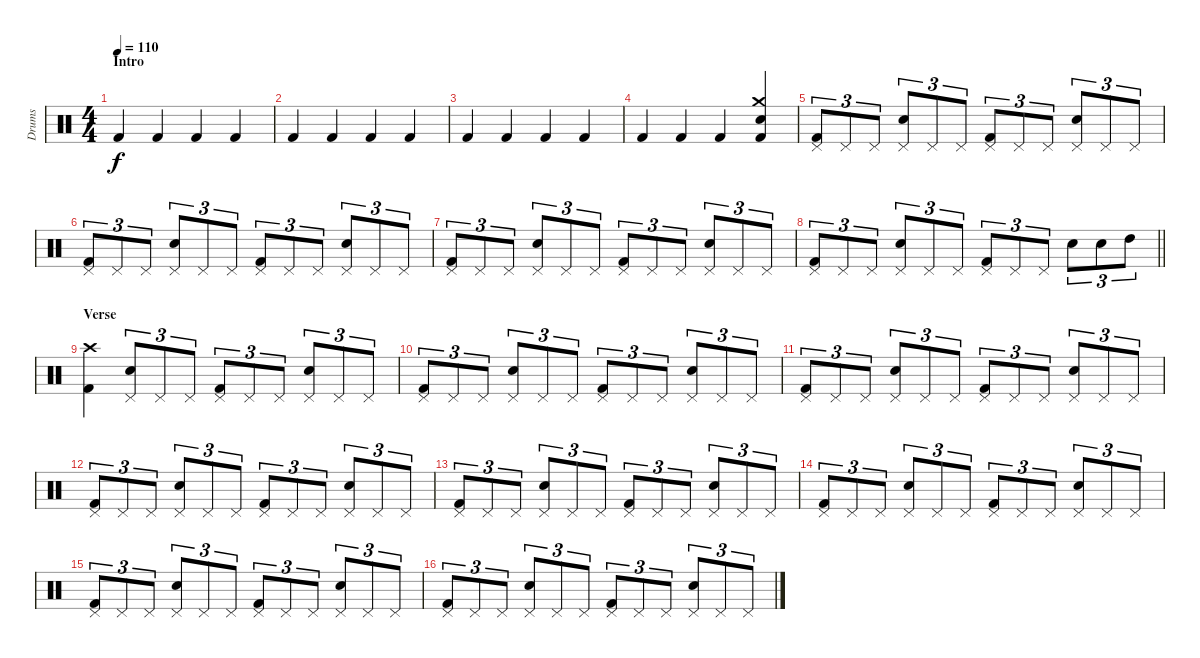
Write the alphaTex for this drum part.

\track ("Drums" "Drums") {instrument percussion}
\staff {score}
\articulation defaults
\ts (4 4)
\section ("" "Intro")
\tempo 110
\clef neutral
\ks c "Kick (hit) 2".4{dy f} "Kick (hit) 2".4 "Kick (hit) 2".4 "Kick (hit) 2".4
|
"Kick (hit) 2".4 "Kick (hit) 2".4 "Kick (hit) 2".4 "Kick (hit) 2".4 |
"Kick (hit) 2".4 "Kick (hit) 2".4 "Kick (hit) 2".4 "Kick (hit) 2".4 |
"Kick (hit) 2".4 "Kick (hit) 2".4 "Kick (hit) 2".4 ("Crash medium (hit)" "Electric Snare (hit)" "Kick (hit) 2").4 |
("Pedal Hi-Hat (hit)" "Kick (hit) 2").8{tu (3 2)} "Pedal Hi-Hat (hit)".8{tu (3 2)} "Pedal Hi-Hat (hit)".8{tu (3 2)} ("Pedal Hi-Hat (hit)" "Electric Snare (hit)").8{tu (3 2)} "Pedal Hi-Hat (hit)".8{tu (3 2)} "Pedal Hi-Hat (hit)".8{tu (3 2)} ("Pedal Hi-Hat (hit)" "Kick (hit) 2").8{tu (3 2)} "Pedal Hi-Hat (hit)".8{tu (3 2)} "Pedal Hi-Hat (hit)".8{tu (3 2)} ("Pedal Hi-Hat (hit)" "Electric Snare (hit)").8{tu (3 2)} "Pedal Hi-Hat (hit)".8{tu (3 2)} "Pedal Hi-Hat (hit)".8{tu (3 2)} |
("Pedal Hi-Hat (hit)" "Kick (hit) 2").8{tu (3 2)} "Pedal Hi-Hat (hit)".8{tu (3 2)} "Pedal Hi-Hat (hit)".8{tu (3 2)} ("Pedal Hi-Hat (hit)" "Electric Snare (hit)").8{tu (3 2)} "Pedal Hi-Hat (hit)".8{tu (3 2)} "Pedal Hi-Hat (hit)".8{tu (3 2)} ("Pedal Hi-Hat (hit)" "Kick (hit) 2").8{tu (3 2)} "Pedal Hi-Hat (hit)".8{tu (3 2)} "Pedal Hi-Hat (hit)".8{tu (3 2)} ("Pedal Hi-Hat (hit)" "Electric Snare (hit)").8{tu (3 2)} "Pedal Hi-Hat (hit)".8{tu (3 2)} "Pedal Hi-Hat (hit)".8{tu (3 2)} |
("Pedal Hi-Hat (hit)" "Kick (hit) 2").8{tu (3 2)} "Pedal Hi-Hat (hit)".8{tu (3 2)} "Pedal Hi-Hat (hit)".8{tu (3 2)} ("Pedal Hi-Hat (hit)" "Electric Snare (hit)").8{tu (3 2)} "Pedal Hi-Hat (hit)".8{tu (3 2)} "Pedal Hi-Hat (hit)".8{tu (3 2)} ("Pedal Hi-Hat (hit)" "Kick (hit) 2").8{tu (3 2)} "Pedal Hi-Hat (hit)".8{tu (3 2)} "Pedal Hi-Hat (hit)".8{tu (3 2)} ("Pedal Hi-Hat (hit)" "Electric Snare (hit)").8{tu (3 2)} "Pedal Hi-Hat (hit)".8{tu (3 2)} "Pedal Hi-Hat (hit)".8{tu (3 2)} |
\barLineRight lightlight
("Pedal Hi-Hat (hit)" "Kick (hit) 2").8{tu (3 2)} "Pedal Hi-Hat (hit)".8{tu (3 2)} "Pedal Hi-Hat (hit)".8{tu (3 2)} ("Pedal Hi-Hat (hit)" "Electric Snare (hit)").8{tu (3 2)} "Pedal Hi-Hat (hit)".8{tu (3 2)} "Pedal Hi-Hat (hit)".8{tu (3 2)} ("Pedal Hi-Hat (hit)" "Kick (hit) 2").8{tu (3 2)} "Pedal Hi-Hat (hit)".8{tu (3 2)} "Pedal Hi-Hat (hit)".8{tu (3 2)} "Electric Snare (hit)".8{tu (3 2)} "Electric Snare (hit)".8{tu (3 2)} "High Tom (hit)".8{tu (3 2)} |
\section ("" "Verse")
("Crash high (hit)" "Kick (hit) 2").4 ("Pedal Hi-Hat (hit)" "Electric Snare (hit)").8{tu (3 2)} "Pedal Hi-Hat (hit)".8{tu (3 2)} "Pedal Hi-Hat (hit)".8{tu (3 2)} ("Pedal Hi-Hat (hit)" "Kick (hit) 2").8{tu (3 2)} "Pedal Hi-Hat (hit)".8{tu (3 2)} "Pedal Hi-Hat (hit)".8{tu (3 2)} ("Pedal Hi-Hat (hit)" "Electric Snare (hit)").8{tu (3 2)} "Pedal Hi-Hat (hit)".8{tu (3 2)} "Pedal Hi-Hat (hit)".8{tu (3 2)} |
("Pedal Hi-Hat (hit)" "Kick (hit) 2").8{tu (3 2)} "Pedal Hi-Hat (hit)".8{tu (3 2)} "Pedal Hi-Hat (hit)".8{tu (3 2)} ("Pedal Hi-Hat (hit)" "Electric Snare (hit)").8{tu (3 2)} "Pedal Hi-Hat (hit)".8{tu (3 2)} "Pedal Hi-Hat (hit)".8{tu (3 2)} ("Pedal Hi-Hat (hit)" "Kick (hit) 2").8{tu (3 2)} "Pedal Hi-Hat (hit)".8{tu (3 2)} "Pedal Hi-Hat (hit)".8{tu (3 2)} ("Pedal Hi-Hat (hit)" "Electric Snare (hit)").8{tu (3 2)} "Pedal Hi-Hat (hit)".8{tu (3 2)} "Pedal Hi-Hat (hit)".8{tu (3 2)} |
("Pedal Hi-Hat (hit)" "Kick (hit) 2").8{tu (3 2)} "Pedal Hi-Hat (hit)".8{tu (3 2)} "Pedal Hi-Hat (hit)".8{tu (3 2)} ("Pedal Hi-Hat (hit)" "Electric Snare (hit)").8{tu (3 2)} "Pedal Hi-Hat (hit)".8{tu (3 2)} "Pedal Hi-Hat (hit)".8{tu (3 2)} ("Pedal Hi-Hat (hit)" "Kick (hit) 2").8{tu (3 2)} "Pedal Hi-Hat (hit)".8{tu (3 2)} "Pedal Hi-Hat (hit)".8{tu (3 2)} ("Pedal Hi-Hat (hit)" "Electric Snare (hit)").8{tu (3 2)} "Pedal Hi-Hat (hit)".8{tu (3 2)} "Pedal Hi-Hat (hit)".8{tu (3 2)} |
("Pedal Hi-Hat (hit)" "Kick (hit) 2").8{tu (3 2)} "Pedal Hi-Hat (hit)".8{tu (3 2)} "Pedal Hi-Hat (hit)".8{tu (3 2)} ("Pedal Hi-Hat (hit)" "Electric Snare (hit)").8{tu (3 2)} "Pedal Hi-Hat (hit)".8{tu (3 2)} "Pedal Hi-Hat (hit)".8{tu (3 2)} ("Pedal Hi-Hat (hit)" "Kick (hit) 2").8{tu (3 2)} "Pedal Hi-Hat (hit)".8{tu (3 2)} "Pedal Hi-Hat (hit)".8{tu (3 2)} ("Pedal Hi-Hat (hit)" "Electric Snare (hit)").8{tu (3 2)} "Pedal Hi-Hat (hit)".8{tu (3 2)} "Pedal Hi-Hat (hit)".8{tu (3 2)} |
("Pedal Hi-Hat (hit)" "Kick (hit) 2").8{tu (3 2)} "Pedal Hi-Hat (hit)".8{tu (3 2)} "Pedal Hi-Hat (hit)".8{tu (3 2)} ("Pedal Hi-Hat (hit)" "Electric Snare (hit)").8{tu (3 2)} "Pedal Hi-Hat (hit)".8{tu (3 2)} "Pedal Hi-Hat (hit)".8{tu (3 2)} ("Pedal Hi-Hat (hit)" "Kick (hit) 2").8{tu (3 2)} "Pedal Hi-Hat (hit)".8{tu (3 2)} "Pedal Hi-Hat (hit)".8{tu (3 2)} ("Pedal Hi-Hat (hit)" "Electric Snare (hit)").8{tu (3 2)} "Pedal Hi-Hat (hit)".8{tu (3 2)} "Pedal Hi-Hat (hit)".8{tu (3 2)} |
("Pedal Hi-Hat (hit)" "Kick (hit) 2").8{tu (3 2)} "Pedal Hi-Hat (hit)".8{tu (3 2)} "Pedal Hi-Hat (hit)".8{tu (3 2)} ("Pedal Hi-Hat (hit)" "Electric Snare (hit)").8{tu (3 2)} "Pedal Hi-Hat (hit)".8{tu (3 2)} "Pedal Hi-Hat (hit)".8{tu (3 2)} ("Pedal Hi-Hat (hit)" "Kick (hit) 2").8{tu (3 2)} "Pedal Hi-Hat (hit)".8{tu (3 2)} "Pedal Hi-Hat (hit)".8{tu (3 2)} ("Pedal Hi-Hat (hit)" "Electric Snare (hit)").8{tu (3 2)} "Pedal Hi-Hat (hit)".8{tu (3 2)} "Pedal Hi-Hat (hit)".8{tu (3 2)} |
("Pedal Hi-Hat (hit)" "Kick (hit) 2").8{tu (3 2)} "Pedal Hi-Hat (hit)".8{tu (3 2)} "Pedal Hi-Hat (hit)".8{tu (3 2)} ("Pedal Hi-Hat (hit)" "Electric Snare (hit)").8{tu (3 2)} "Pedal Hi-Hat (hit)".8{tu (3 2)} "Pedal Hi-Hat (hit)".8{tu (3 2)} ("Pedal Hi-Hat (hit)" "Kick (hit) 2").8{tu (3 2)} "Pedal Hi-Hat (hit)".8{tu (3 2)} "Pedal Hi-Hat (hit)".8{tu (3 2)} ("Pedal Hi-Hat (hit)" "Electric Snare (hit)").8{tu (3 2)} "Pedal Hi-Hat (hit)".8{tu (3 2)} "Pedal Hi-Hat (hit)".8{tu (3 2)} |
("Pedal Hi-Hat (hit)" "Kick (hit) 2").8{tu (3 2)} "Pedal Hi-Hat (hit)".8{tu (3 2)} "Pedal Hi-Hat (hit)".8{tu (3 2)} ("Pedal Hi-Hat (hit)" "Electric Snare (hit)").8{tu (3 2)} "Pedal Hi-Hat (hit)".8{tu (3 2)} "Pedal Hi-Hat (hit)".8{tu (3 2)} ("Pedal Hi-Hat (hit)" "Kick (hit) 2").8{tu (3 2)} "Pedal Hi-Hat (hit)".8{tu (3 2)} "Pedal Hi-Hat (hit)".8{tu (3 2)} ("Pedal Hi-Hat (hit)" "Electric Snare (hit)").8{tu (3 2)} "Pedal Hi-Hat (hit)".8{tu (3 2)} "Pedal Hi-Hat (hit)".8{tu (3 2)}
